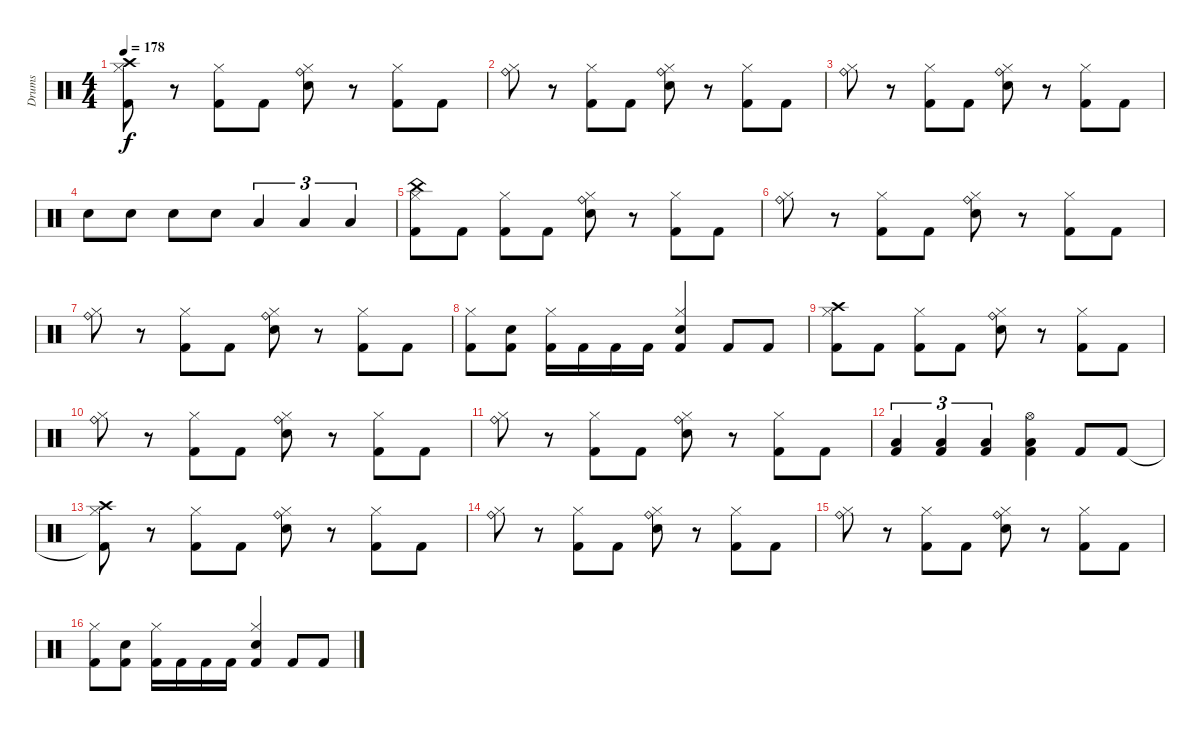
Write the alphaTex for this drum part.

\track ("Drums" "Drums") {instrument percussion}
\staff {score}
\articulation defaults
\ts (4 4)
\tempo 178
\clef neutral
\ks c
("Kick (hit) 2"{t} "Hi-Hat (closed)" "Crash high (hit)").8{dy f} r.8 ("Kick (hit) 2" "Hi-Hat (closed)").8 "Kick (hit) 2".8 ("Snare (hit) 2" "Hi-Hat (closed)" "Ride (bell)").8 r.8 ("Kick (hit) 2" "Hi-Hat (closed)").8 "Kick (hit) 2".8 |
("Hi-Hat (closed)" "Ride (bell)").8 r.8 ("Kick (hit) 2" "Hi-Hat (closed)").8 "Kick (hit) 2".8 ("Snare (hit) 2" "Hi-Hat (closed)" "Ride (bell)").8 r.8 ("Kick (hit) 2" "Hi-Hat (closed)").8 "Kick (hit) 2".8 |
("Hi-Hat (closed)" "Ride (bell)").8 r.8 ("Kick (hit) 2" "Hi-Hat (closed)").8 "Kick (hit) 2".8 ("Snare (hit) 2" "Hi-Hat (closed)" "Ride (bell)").8 r.8 ("Kick (hit) 2" "Hi-Hat (closed)").8 "Kick (hit) 2".8 |
"Snare (hit) 2".8 "Snare (hit) 2".8 "Snare (hit) 2".8 "Snare (hit) 2".8 "Low Floor Tom (hit)".4{tu (3 2)} "Low Floor Tom (hit)".4{tu (3 2)} "Low Floor Tom (hit)".4{tu (3 2)} |
("Kick (hit) 2" "Hi-Hat (closed)" "China (hit)").8 "Kick (hit) 2".8 ("Kick (hit) 2" "Hi-Hat (closed)").8 "Kick (hit) 2".8 ("Snare (hit) 2" "Hi-Hat (closed)" "Ride (bell)").8 r.8 ("Kick (hit) 2" "Hi-Hat (closed)").8 "Kick (hit) 2".8 |
("Hi-Hat (closed)" "Ride (bell)").8 r.8 ("Kick (hit) 2" "Hi-Hat (closed)").8 "Kick (hit) 2".8 ("Snare (hit) 2" "Hi-Hat (closed)" "Ride (bell)").8 r.8 ("Kick (hit) 2" "Hi-Hat (closed)").8 "Kick (hit) 2".8 |
("Hi-Hat (closed)" "Ride (bell)").8 r.8 ("Kick (hit) 2" "Hi-Hat (closed)").8 "Kick (hit) 2".8 ("Snare (hit) 2" "Hi-Hat (closed)" "Ride (bell)").8 r.8 ("Kick (hit) 2" "Hi-Hat (closed)").8 "Kick (hit) 2".8 |
("Kick (hit) 2" "Hi-Hat (closed)").8 ("Kick (hit) 2" "Snare (hit) 2").8 ("Kick (hit) 2" "Hi-Hat (closed)").16 "Kick (hit) 2".16 "Kick (hit) 2".16 "Kick (hit) 2".16 ("Kick (hit) 2" "Snare (hit) 2" "Hi-Hat (closed)").4 "Kick (hit) 2".8 "Kick (hit) 2".8 |
("Kick (hit) 2" "Hi-Hat (closed)" "Crash high (hit)").8 "Kick (hit) 2".8 ("Kick (hit) 2" "Hi-Hat (closed)").8 "Kick (hit) 2".8 ("Snare (hit) 2" "Hi-Hat (closed)" "Ride (bell)").8 r.8 ("Kick (hit) 2" "Hi-Hat (closed)").8 "Kick (hit) 2".8 |
("Hi-Hat (closed)" "Ride (bell)").8 r.8 ("Kick (hit) 2" "Hi-Hat (closed)").8 "Kick (hit) 2".8 ("Snare (hit) 2" "Hi-Hat (closed)" "Ride (bell)").8 r.8 ("Kick (hit) 2" "Hi-Hat (closed)").8 "Kick (hit) 2".8 |
("Hi-Hat (closed)" "Ride (bell)").8 r.8 ("Kick (hit) 2" "Hi-Hat (closed)").8 "Kick (hit) 2".8 ("Snare (hit) 2" "Hi-Hat (closed)" "Ride (bell)").8 r.8 ("Kick (hit) 2" "Hi-Hat (closed)").8 "Kick (hit) 2".8 |
("Kick (hit) 2" "Low Floor Tom (hit)").4{tu (3 2)} ("Kick (hit) 2" "Low Floor Tom (hit)").4{tu (3 2)} ("Kick (hit) 2" "Low Floor Tom (hit)").4{tu (3 2)} ("Kick (hit) 2" "Low Floor Tom (hit)" "Hi-Hat (open)").4 "Kick (hit) 2".8 "Kick (hit) 2".8 |
("Kick (hit) 2"{t} "Hi-Hat (closed)" "Crash high (hit)").8 r.8 ("Kick (hit) 2" "Hi-Hat (closed)").8 "Kick (hit) 2".8 ("Snare (hit) 2" "Hi-Hat (closed)" "Ride (bell)").8 r.8 ("Kick (hit) 2" "Hi-Hat (closed)").8 "Kick (hit) 2".8 |
("Hi-Hat (closed)" "Ride (bell)").8 r.8 ("Kick (hit) 2" "Hi-Hat (closed)").8 "Kick (hit) 2".8 ("Snare (hit) 2" "Hi-Hat (closed)" "Ride (bell)").8 r.8 ("Kick (hit) 2" "Hi-Hat (closed)").8 "Kick (hit) 2".8 |
("Hi-Hat (closed)" "Ride (bell)").8 r.8 ("Kick (hit) 2" "Hi-Hat (closed)").8 "Kick (hit) 2".8 ("Snare (hit) 2" "Hi-Hat (closed)" "Ride (bell)").8 r.8 ("Kick (hit) 2" "Hi-Hat (closed)").8 "Kick (hit) 2".8 |
("Kick (hit) 2" "Hi-Hat (closed)").8 ("Kick (hit) 2" "Snare (hit) 2").8 ("Kick (hit) 2" "Hi-Hat (closed)").16 "Kick (hit) 2".16 "Kick (hit) 2".16 "Kick (hit) 2".16 ("Kick (hit) 2" "Snare (hit) 2" "Hi-Hat (closed)").4 "Kick (hit) 2".8 "Kick (hit) 2".8
